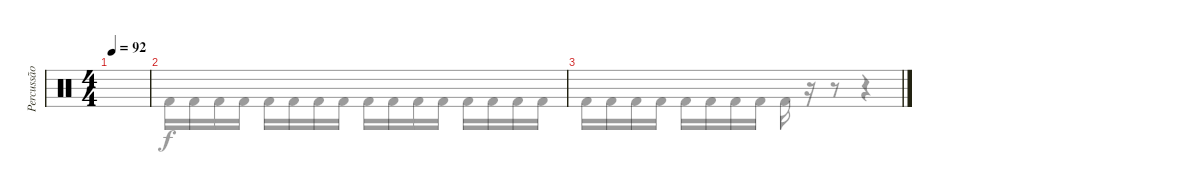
\track ("Percussão" "Percussão") {instrument percussion}
\staff {score}
\articulation defaults
\voice
\ts (4 4)
\tempo 92
\clef neutral
\ks c
|
|
|
|
|
|
|
|
|
|
|
|
|
|
|
\voice
\clef neutral
\ks c
|
"Kick (hit) 2".16 "Kick (hit) 2".16 "Kick (hit) 2".16 "Kick (hit) 2".16 "Kick (hit) 2".16 "Kick (hit) 2".16 "Kick (hit) 2".16 "Kick (hit) 2".16 "Kick (hit) 2".16 "Kick (hit) 2".16 "Kick (hit) 2".16 "Kick (hit) 2".16 "Kick (hit) 2".16 "Kick (hit) 2".16 "Kick (hit) 2".16 "Kick (hit) 2".16 |
"Kick (hit) 2".16 "Kick (hit) 2".16 "Kick (hit) 2".16 "Kick (hit) 2".16 "Kick (hit) 2".16 "Kick (hit) 2".16 "Kick (hit) 2".16 "Kick (hit) 2".16 "Kick (hit) 2".16 r.16 r.8 r.4 |
|
|
|
|
|
|
|
|
|
|
|
|
